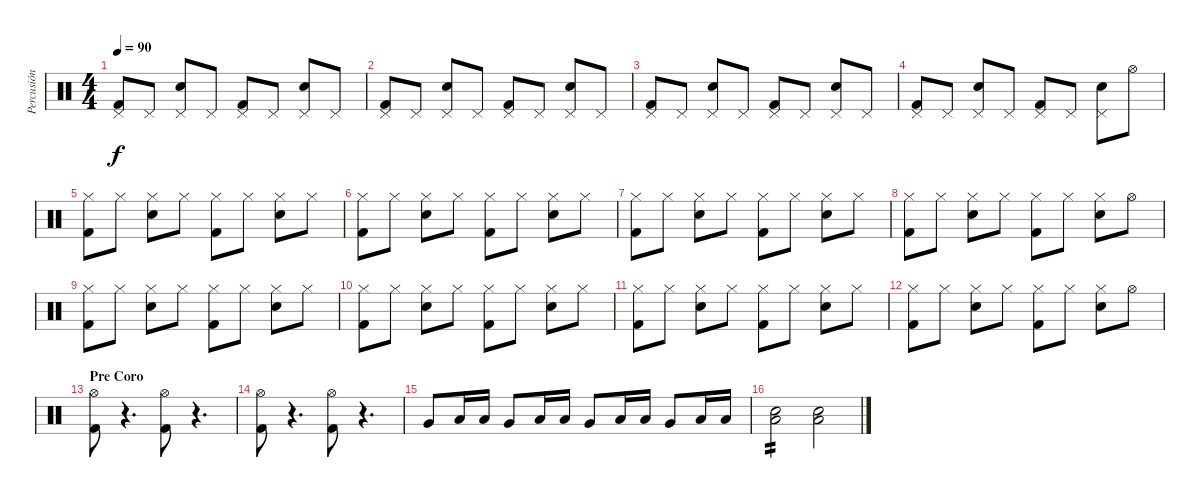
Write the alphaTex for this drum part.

\track ("Percusión" "Percusión") {instrument percussion}
\staff {score}
\articulation defaults
\ts (4 4)
\tempo 90
\clef neutral
\ks c
("Pedal Hi-Hat (hit)" "Kick (hit) 2").8{dy f} "Pedal Hi-Hat (hit)".8 ("Pedal Hi-Hat (hit)" "Snare (hit) 2").8 "Pedal Hi-Hat (hit)".8 ("Pedal Hi-Hat (hit)" "Kick (hit) 2").8 "Pedal Hi-Hat (hit)".8 ("Pedal Hi-Hat (hit)" "Snare (hit) 2").8 "Pedal Hi-Hat (hit)".8 |
("Pedal Hi-Hat (hit)" "Kick (hit) 2").8 "Pedal Hi-Hat (hit)".8 ("Pedal Hi-Hat (hit)" "Snare (hit) 2").8 "Pedal Hi-Hat (hit)".8 ("Pedal Hi-Hat (hit)" "Kick (hit) 2").8 "Pedal Hi-Hat (hit)".8 ("Pedal Hi-Hat (hit)" "Snare (hit) 2").8 "Pedal Hi-Hat (hit)".8 |
("Pedal Hi-Hat (hit)" "Kick (hit) 2").8 "Pedal Hi-Hat (hit)".8 ("Pedal Hi-Hat (hit)" "Snare (hit) 2").8 "Pedal Hi-Hat (hit)".8 ("Pedal Hi-Hat (hit)" "Kick (hit) 2").8 "Pedal Hi-Hat (hit)".8 ("Pedal Hi-Hat (hit)" "Snare (hit) 2").8 "Pedal Hi-Hat (hit)".8 |
("Pedal Hi-Hat (hit)" "Kick (hit) 2").8 "Pedal Hi-Hat (hit)".8 ("Pedal Hi-Hat (hit)" "Snare (hit) 2").8 "Pedal Hi-Hat (hit)".8 ("Pedal Hi-Hat (hit)" "Kick (hit) 2").8 "Pedal Hi-Hat (hit)".8 ("Pedal Hi-Hat (hit)" "Snare (hit) 2").8 "Hi-Hat (open)".8 |
("Hi-Hat (closed)" "Kick (hit) 2").8 "Hi-Hat (closed)".8 ("Hi-Hat (closed)" "Snare (hit) 2").8 "Hi-Hat (closed)".8 ("Hi-Hat (closed)" "Kick (hit) 2").8 "Hi-Hat (closed)".8 ("Hi-Hat (closed)" "Snare (hit) 2").8 "Hi-Hat (closed)".8 |
("Hi-Hat (closed)" "Kick (hit) 2").8 "Hi-Hat (closed)".8 ("Hi-Hat (closed)" "Snare (hit) 2").8 "Hi-Hat (closed)".8 ("Hi-Hat (closed)" "Kick (hit) 2").8 "Hi-Hat (closed)".8 ("Hi-Hat (closed)" "Snare (hit) 2").8 "Hi-Hat (closed)".8 |
("Hi-Hat (closed)" "Kick (hit) 2").8 "Hi-Hat (closed)".8 ("Hi-Hat (closed)" "Snare (hit) 2").8 "Hi-Hat (closed)".8 ("Hi-Hat (closed)" "Kick (hit) 2").8 "Hi-Hat (closed)".8 ("Hi-Hat (closed)" "Snare (hit) 2").8 "Hi-Hat (closed)".8 |
("Hi-Hat (closed)" "Kick (hit) 2").8 "Hi-Hat (closed)".8 ("Hi-Hat (closed)" "Snare (hit) 2").8 "Hi-Hat (closed)".8 ("Hi-Hat (closed)" "Kick (hit) 2").8 "Hi-Hat (closed)".8 ("Hi-Hat (closed)" "Snare (hit) 2").8 "Hi-Hat (open)".8 |
("Hi-Hat (closed)" "Kick (hit) 2").8 "Hi-Hat (closed)".8 ("Hi-Hat (closed)" "Snare (hit) 2").8 "Hi-Hat (closed)".8 ("Hi-Hat (closed)" "Kick (hit) 2").8 "Hi-Hat (closed)".8 ("Hi-Hat (closed)" "Snare (hit) 2").8 "Hi-Hat (closed)".8 |
("Hi-Hat (closed)" "Kick (hit) 2").8 "Hi-Hat (closed)".8 ("Hi-Hat (closed)" "Snare (hit) 2").8 "Hi-Hat (closed)".8 ("Hi-Hat (closed)" "Kick (hit) 2").8 "Hi-Hat (closed)".8 ("Hi-Hat (closed)" "Snare (hit) 2").8 "Hi-Hat (closed)".8 |
("Hi-Hat (closed)" "Kick (hit) 2").8 "Hi-Hat (closed)".8 ("Hi-Hat (closed)" "Snare (hit) 2").8 "Hi-Hat (closed)".8 ("Hi-Hat (closed)" "Kick (hit) 2").8 "Hi-Hat (closed)".8 ("Hi-Hat (closed)" "Snare (hit) 2").8 "Hi-Hat (closed)".8 |
("Hi-Hat (closed)" "Kick (hit) 2").8 "Hi-Hat (closed)".8 ("Hi-Hat (closed)" "Snare (hit) 2").8 "Hi-Hat (closed)".8 ("Hi-Hat (closed)" "Kick (hit) 2").8 "Hi-Hat (closed)".8 ("Hi-Hat (closed)" "Snare (hit) 2").8 "Hi-Hat (open)".8 |
\section ("" "Pre Coro")
("Kick (hit) 2" "Hi-Hat (open)").8 r.4{d} ("Kick (hit) 2" "Hi-Hat (open)").8 r.4{d} |
("Kick (hit) 2" "Hi-Hat (open)").8 r.4{d} ("Kick (hit) 2" "Hi-Hat (open)").8 r.4{d} |
"Very Low Tom (hit)".8 "Low Floor Tom (hit)".16 "Low Floor Tom (hit)".16 "Very Low Tom (hit)".8 "Low Floor Tom (hit)".16 "Low Floor Tom (hit)".16 "Very Low Tom (hit)".8 "Low Floor Tom (hit)".16 "Low Floor Tom (hit)".16 "Very Low Tom (hit)".8 "Low Floor Tom (hit)".16 "Low Floor Tom (hit)".16 |
("Low Floor Tom (hit)" "Snare (hit) 2").2{tp 2} ("Low Floor Tom (hit)" "Snare (hit) 2").2
